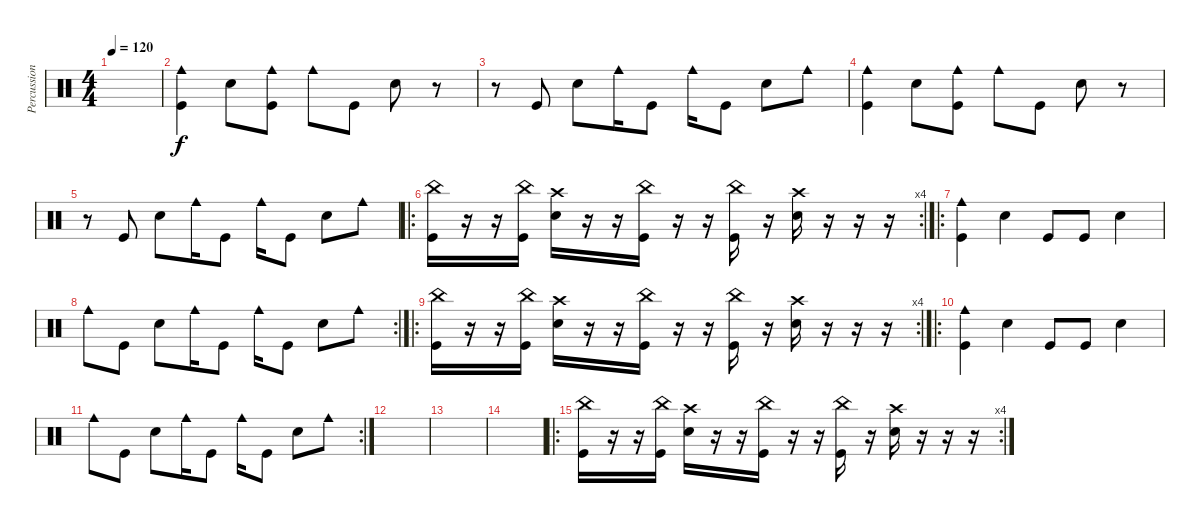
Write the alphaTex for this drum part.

\track ("Percussions" "Percussion") {instrument percussion}
\staff {score}
\articulation defaults
\ts (4 4)
\tempo 120
\clef neutral
\ks c
|
("Cowbell medium (hit)" "Kick (hit)").4 "Electric Snare (hit)".8 ("Cowbell medium (hit)" "Kick (hit)").8 "Cowbell medium (hit)".8 "Kick (hit)".8 "Electric Snare (hit)".8 r.8 |
r.8 "Kick (hit)".8 "Electric Snare (hit)".8 "Cowbell medium (hit)".16 "Kick (hit)".8 "Cowbell medium (hit)".16 "Kick (hit)".8 "Electric Snare (hit)".8 "Cowbell medium (hit)".8 |
("Cowbell medium (hit)" "Kick (hit)").4 "Electric Snare (hit)".8 ("Cowbell medium (hit)" "Kick (hit)").8 "Cowbell medium (hit)".8 "Kick (hit)".8 "Electric Snare (hit)".8 r.8 |
r.8 "Kick (hit)".8 "Electric Snare (hit)".8 "Cowbell medium (hit)".16 "Kick (hit)".8 "Cowbell medium (hit)".16 "Kick (hit)".8 "Electric Snare (hit)".8 "Cowbell medium (hit)".8 |
\ro
\rc 4
("China (hit)" "Kick (hit)").16 r.16 r.16 ("China (hit)" "Kick (hit)").16 ("Electric Snare (hit)" "Crash high (hit)").16 r.16 r.16 ("China (hit)" "Kick (hit)").16 r.16 r.16 ("China (hit)" "Kick (hit)").16 r.16 ("Electric Snare (hit)" "Crash high (hit)").16 r.16 r.16 r.16 |
\ro
("Cowbell medium (hit)" "Kick (hit)").4 "Electric Snare (hit)".4 "Kick (hit)".8 "Kick (hit)".8 "Electric Snare (hit)".4 |
\rc 2 "Cowbell medium (hit)".8 "Kick (hit)".8 "Electric Snare (hit)".8 "Cowbell medium (hit)".16 "Kick (hit)".8 "Cowbell medium (hit)".16 "Kick (hit)".8 "Electric Snare (hit)".8 "Cowbell medium (hit)".8
|
\ro
\rc 4
("China (hit)" "Kick (hit)").16 r.16 r.16 ("China (hit)" "Kick (hit)").16 ("Electric Snare (hit)" "Crash high (hit)").16 r.16 r.16 ("China (hit)" "Kick (hit)").16 r.16 r.16 ("China (hit)" "Kick (hit)").16 r.16 ("Electric Snare (hit)" "Crash high (hit)").16 r.16 r.16 r.16 |
\ro
("Cowbell medium (hit)" "Kick (hit)").4 "Electric Snare (hit)".4 "Kick (hit)".8 "Kick (hit)".8 "Electric Snare (hit)".4 |
\rc 2 "Cowbell medium (hit)".8 "Kick (hit)".8 "Electric Snare (hit)".8 "Cowbell medium (hit)".16 "Kick (hit)".8 "Cowbell medium (hit)".16 "Kick (hit)".8 "Electric Snare (hit)".8 "Cowbell medium (hit)".8
|
|
|
|
\ro
\rc 4
("China (hit)" "Kick (hit)").16 r.16 r.16 ("China (hit)" "Kick (hit)").16 ("Electric Snare (hit)" "Crash high (hit)").16 r.16 r.16 ("China (hit)" "Kick (hit)").16 r.16 r.16 ("China (hit)" "Kick (hit)").16 r.16 ("Electric Snare (hit)" "Crash high (hit)").16 r.16 r.16 r.16
